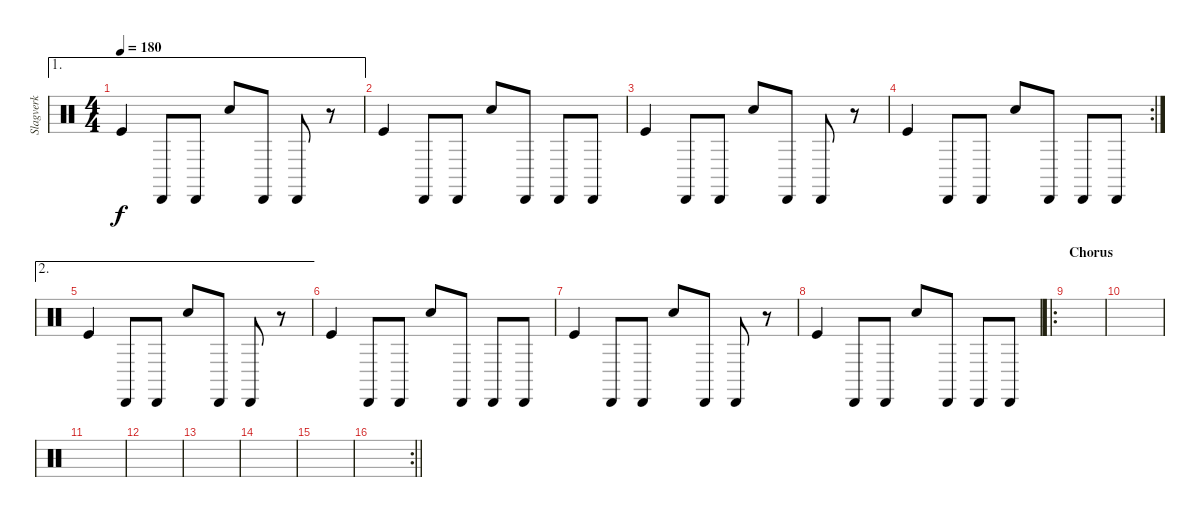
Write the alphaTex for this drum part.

\track ("Slagverk" "Slagverk") {instrument percussion}
\staff {score}
\articulation defaults
\ae 1
\ts (4 4)
\tempo 180
\clef neutral
\ks c "Kick (hit)".4{dy f} "Cabasa (hit)".8 "Cabasa (hit)".8 "Snare (hit) 2".8 "Cabasa (hit)".8 "Cabasa (hit)".8
r.8 |
"Kick (hit)".4 "Cabasa (hit)".8 "Cabasa (hit)".8 "Snare (hit) 2".8 "Cabasa (hit)".8 "Cabasa (hit)".8 "Cabasa (hit)".8 |
"Kick (hit)".4 "Cabasa (hit)".8 "Cabasa (hit)".8 "Snare (hit) 2".8 "Cabasa (hit)".8 "Cabasa (hit)".8 r.8 |
\rc 2 "Kick (hit)".4 "Cabasa (hit)".8 "Cabasa (hit)".8 "Snare (hit) 2".8 "Cabasa (hit)".8 "Cabasa (hit)".8 "Cabasa (hit)".8
|
\ae 2 "Kick (hit)".4 "Cabasa (hit)".8 "Cabasa (hit)".8 "Snare (hit) 2".8 "Cabasa (hit)".8 "Cabasa (hit)".8
r.8 |
"Kick (hit)".4 "Cabasa (hit)".8 "Cabasa (hit)".8 "Snare (hit) 2".8 "Cabasa (hit)".8 "Cabasa (hit)".8 "Cabasa (hit)".8 |
"Kick (hit)".4 "Cabasa (hit)".8 "Cabasa (hit)".8 "Snare (hit) 2".8 "Cabasa (hit)".8 "Cabasa (hit)".8 r.8 |
"Kick (hit)".4 "Cabasa (hit)".8 "Cabasa (hit)".8 "Snare (hit) 2".8 "Cabasa (hit)".8 "Cabasa (hit)".8 "Cabasa (hit)".8 |
\ro
\section ("" "Chorus")
|
|
|
|
|
|
|
\rc 2
\barLineRight lightlight
